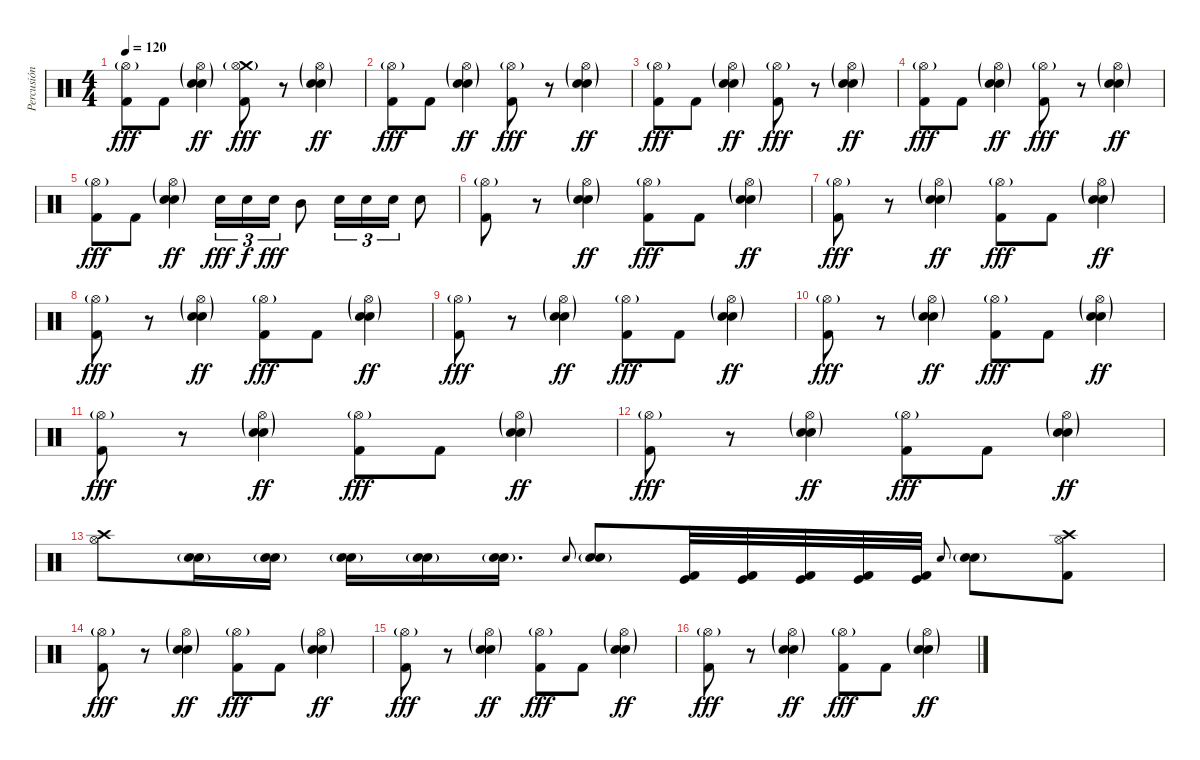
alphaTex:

\track ("Percusión" "Percusión") {instrument percussion}
\staff {score}
\articulation defaults
\ts (4 4)
\tempo 120
\clef neutral
\ks c
("Hi-Hat (open)"{g} "Kick (hit) 2").8{dy fff} "Kick (hit) 2".8 ("Hi-Hat (open)"{g} "Electric Snare (hit)"{g} "Snare (hit) 2").4{dy ff} ("Crash medium (hit)" "Hi-Hat (open)"{g} "Kick (hit) 2").8{dy fff} r.8 ("Hi-Hat (open)"{g} "Electric Snare (hit)"{g} "Snare (hit) 2").4{dy ff} |
("Hi-Hat (open)"{g} "Kick (hit) 2").8{dy fff} "Kick (hit) 2".8 ("Hi-Hat (open)"{g} "Electric Snare (hit)"{g} "Snare (hit) 2").4{dy ff} ("Hi-Hat (open)"{g} "Kick (hit) 2").8{dy fff} r.8 ("Hi-Hat (open)"{g} "Electric Snare (hit)"{g} "Snare (hit) 2").4{dy ff} |
("Hi-Hat (open)"{g} "Kick (hit) 2").8{dy fff} "Kick (hit) 2".8 ("Hi-Hat (open)"{g} "Electric Snare (hit)"{g} "Snare (hit) 2").4{dy ff} ("Hi-Hat (open)"{g} "Kick (hit) 2").8{dy fff} r.8 ("Hi-Hat (open)"{g} "Electric Snare (hit)"{g} "Snare (hit) 2").4{dy ff} |
("Hi-Hat (open)"{g} "Kick (hit) 2").8{dy fff} "Kick (hit) 2".8 ("Hi-Hat (open)"{g} "Electric Snare (hit)"{g} "Snare (hit) 2").4{dy ff} ("Hi-Hat (open)"{g} "Kick (hit) 2").8{dy fff} r.8 ("Hi-Hat (open)"{g} "Electric Snare (hit)"{g} "Snare (hit) 2").4{dy ff} |
("Hi-Hat (open)"{g} "Kick (hit) 2").8{dy fff} "Kick (hit) 2".8 ("Hi-Hat (open)"{g} "Electric Snare (hit)"{g} "Snare (hit) 2").4{dy ff} "Snare (hit) 2".16{tu (3 2) dy fff} "Snare (hit) 2".16{tu (3 2) dy f} "Snare (hit) 2".16{tu (3 2) dy fff} "Mid Tom (hit)".8 "Snare (hit) 2".16{tu (3 2)} "Snare (hit) 2".16{tu (3 2)} "Snare (hit) 2".16{tu (3 2)} "Snare (hit) 2".8 |
("Hi-Hat (open)"{g} "Kick (hit) 2").8 r.8 ("Hi-Hat (open)"{g} "Electric Snare (hit)"{g} "Snare (hit) 2").4{dy ff} ("Hi-Hat (open)"{g} "Kick (hit) 2").8{dy fff} "Kick (hit) 2".8 ("Hi-Hat (open)"{g} "Electric Snare (hit)"{g} "Snare (hit) 2").4{dy ff} |
("Hi-Hat (open)"{g} "Kick (hit) 2").8{dy fff} r.8 ("Hi-Hat (open)"{g} "Electric Snare (hit)"{g} "Snare (hit) 2").4{dy ff} ("Hi-Hat (open)"{g} "Kick (hit) 2").8{dy fff} "Kick (hit) 2".8 ("Hi-Hat (open)"{g} "Electric Snare (hit)"{g} "Snare (hit) 2").4{dy ff} |
("Hi-Hat (open)"{g} "Kick (hit) 2").8{dy fff} r.8 ("Hi-Hat (open)"{g} "Electric Snare (hit)"{g} "Snare (hit) 2").4{dy ff} ("Hi-Hat (open)"{g} "Kick (hit) 2").8{dy fff} "Kick (hit) 2".8 ("Hi-Hat (open)"{g} "Electric Snare (hit)"{g} "Snare (hit) 2").4{dy ff} |
("Hi-Hat (open)"{g} "Kick (hit) 2").8{dy fff} r.8 ("Hi-Hat (open)"{g} "Electric Snare (hit)"{g} "Snare (hit) 2").4{dy ff} ("Hi-Hat (open)"{g} "Kick (hit) 2").8{dy fff} "Kick (hit) 2".8 ("Hi-Hat (open)"{g} "Electric Snare (hit)"{g} "Snare (hit) 2").4{dy ff} |
("Hi-Hat (open)"{g} "Kick (hit) 2").8{dy fff} r.8 ("Hi-Hat (open)"{g} "Electric Snare (hit)"{g} "Snare (hit) 2").4{dy ff} ("Hi-Hat (open)"{g} "Kick (hit) 2").8{dy fff} "Kick (hit) 2".8 ("Hi-Hat (open)"{g} "Electric Snare (hit)"{g} "Snare (hit) 2").4{dy ff} |
("Hi-Hat (open)"{g} "Kick (hit) 2").8{dy fff} r.8 ("Hi-Hat (open)"{g} "Electric Snare (hit)"{g} "Snare (hit) 2").4{dy ff} ("Hi-Hat (open)"{g} "Kick (hit) 2").8{dy fff} "Kick (hit) 2".8 ("Hi-Hat (open)"{g} "Electric Snare (hit)"{g} "Snare (hit) 2").4{dy ff} |
("Hi-Hat (open)"{g} "Kick (hit) 2").8{dy fff} r.8 ("Hi-Hat (open)"{g} "Electric Snare (hit)"{g} "Snare (hit) 2").4{dy ff} ("Hi-Hat (open)"{g} "Kick (hit) 2").8{dy fff} "Kick (hit) 2".8 ("Hi-Hat (open)"{g} "Electric Snare (hit)"{g} "Snare (hit) 2").4{dy ff} |
("Crash high (hit)" "Hi-Hat (open)").8 ("Electric Snare (hit)"{g} "Snare (hit) 2").16 ("Electric Snare (hit)"{g} "Snare (hit) 2").16 ("Electric Snare (hit)"{g} "Snare (hit) 2").16 ("Electric Snare (hit)"{g} "Snare (hit) 2").16 ("Electric Snare (hit)"{g} "Snare (hit) 2").16{d} "Snare (hit) 2".8{gr onbeat} ("Electric Snare (hit)"{g} "Snare (hit) 2").8 ("Kick (hit)" "Kick (hit) 2").32 ("Kick (hit)" "Kick (hit) 2").32 ("Kick (hit)" "Kick (hit) 2").32 ("Kick (hit)" "Kick (hit) 2").32 ("Kick (hit)" "Kick (hit) 2").32 "Snare (hit) 2".8{gr onbeat} ("Electric Snare (hit)"{g} "Snare (hit) 2").8 ("Hi-Hat (open)" "Crash high (hit)" "Kick (hit) 2").8 |
("Hi-Hat (open)"{g} "Kick (hit) 2").8{dy fff} r.8 ("Hi-Hat (open)"{g} "Electric Snare (hit)"{g} "Snare (hit) 2").4{dy ff} ("Hi-Hat (open)"{g} "Kick (hit) 2").8{dy fff} "Kick (hit) 2".8 ("Hi-Hat (open)"{g} "Electric Snare (hit)"{g} "Snare (hit) 2").4{dy ff} |
("Hi-Hat (open)"{g} "Kick (hit) 2").8{dy fff} r.8 ("Hi-Hat (open)"{g} "Electric Snare (hit)"{g} "Snare (hit) 2").4{dy ff} ("Hi-Hat (open)"{g} "Kick (hit) 2").8{dy fff} "Kick (hit) 2".8 ("Hi-Hat (open)"{g} "Electric Snare (hit)"{g} "Snare (hit) 2").4{dy ff} |
("Hi-Hat (open)"{g} "Kick (hit) 2").8{dy fff} r.8 ("Hi-Hat (open)"{g} "Electric Snare (hit)"{g} "Snare (hit) 2").4{dy ff} ("Hi-Hat (open)"{g} "Kick (hit) 2").8{dy fff} "Kick (hit) 2".8 ("Hi-Hat (open)"{g} "Electric Snare (hit)"{g} "Snare (hit) 2").4{dy ff}
